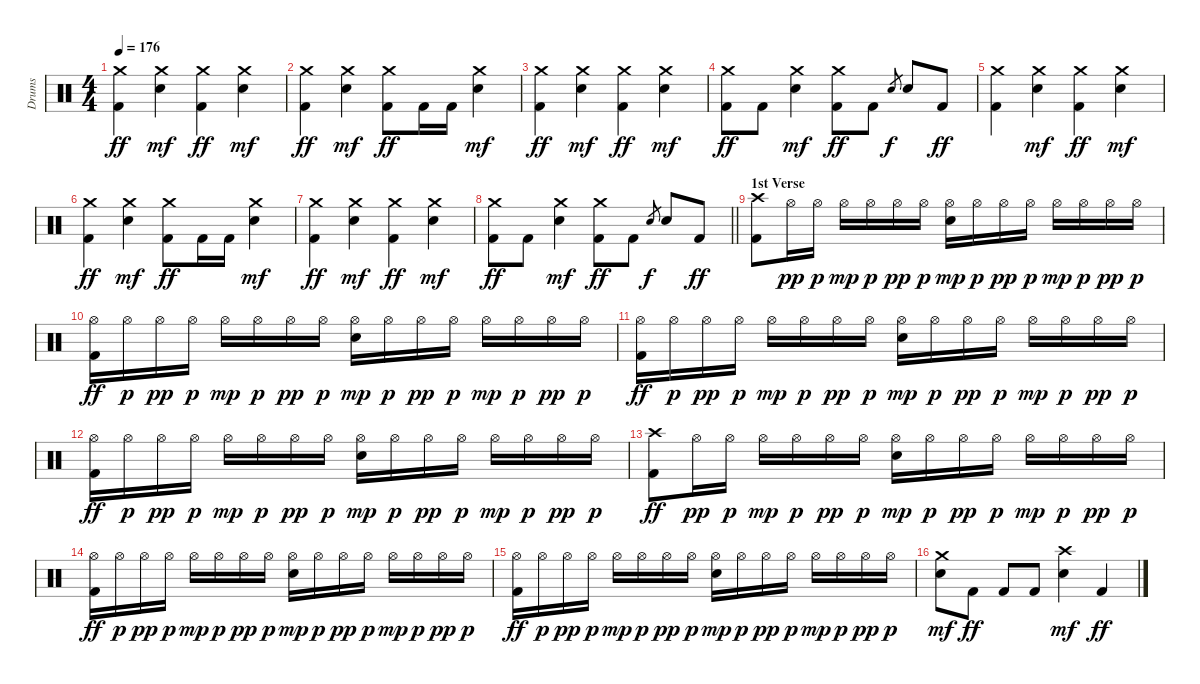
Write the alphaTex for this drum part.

\track ("Drums" "Drums") {instrument percussion}
\staff {score}
\articulation defaults
\ts (4 4)
\section ("" "")
\tempo 176
\clef neutral
\ks c
("Crash medium (hit)" "Kick (hit) 2").4{dy ff} ("Crash medium (hit)" "Electric Snare (hit)").4{dy mf} ("Crash medium (hit)" "Kick (hit) 2").4{dy ff} ("Crash medium (hit)" "Electric Snare (hit)").4{dy mf} |
("Crash medium (hit)" "Kick (hit) 2").4{dy ff} ("Crash medium (hit)" "Electric Snare (hit)").4{dy mf} ("Crash medium (hit)" "Kick (hit) 2").8{dy ff} "Kick (hit) 2".16 "Kick (hit) 2".16 ("Crash medium (hit)" "Electric Snare (hit)").4{dy mf} |
("Crash medium (hit)" "Kick (hit) 2").4{dy ff} ("Crash medium (hit)" "Electric Snare (hit)").4{dy mf} ("Crash medium (hit)" "Kick (hit) 2").4{dy ff} ("Crash medium (hit)" "Electric Snare (hit)").4{dy mf} |
("Crash medium (hit)" "Kick (hit) 2").8{dy ff} "Kick (hit) 2".8 ("Crash medium (hit)" "Electric Snare (hit)").4{dy mf} ("Crash medium (hit)" "Kick (hit) 2").8{dy ff} "Kick (hit) 2".8 "Electric Snare (hit)".8{gr dy f} "Electric Snare (hit)".8 "Kick (hit) 2".8{dy ff} |
("Crash medium (hit)" "Kick (hit) 2").4 ("Crash medium (hit)" "Electric Snare (hit)").4{dy mf} ("Crash medium (hit)" "Kick (hit) 2").4{dy ff} ("Crash medium (hit)" "Electric Snare (hit)").4{dy mf} |
("Crash medium (hit)" "Kick (hit) 2").4{dy ff} ("Crash medium (hit)" "Electric Snare (hit)").4{dy mf} ("Crash medium (hit)" "Kick (hit) 2").8{dy ff} "Kick (hit) 2".16 "Kick (hit) 2".16 ("Crash medium (hit)" "Electric Snare (hit)").4{dy mf} |
("Crash medium (hit)" "Kick (hit) 2").4{dy ff} ("Crash medium (hit)" "Electric Snare (hit)").4{dy mf} ("Crash medium (hit)" "Kick (hit) 2").4{dy ff} ("Crash medium (hit)" "Electric Snare (hit)").4{dy mf} |
\barLineRight lightlight
("Crash medium (hit)" "Kick (hit) 2").8{dy ff} "Kick (hit) 2".8 ("Crash medium (hit)" "Electric Snare (hit)").4{dy mf} ("Crash medium (hit)" "Kick (hit) 2").8{dy ff} "Kick (hit) 2".8 "Electric Snare (hit)".8{gr dy f} "Electric Snare (hit)".8 "Kick (hit) 2".8{dy ff} |
\section ("" "1st Verse")
("Crash high (hit)" "Kick (hit) 2").8 "Hi-Hat (open)".16{dy pp} "Hi-Hat (open)".16{dy p} "Hi-Hat (open)".16{dy mp} "Hi-Hat (open)".16{dy p} "Hi-Hat (open)".16{dy pp} "Hi-Hat (open)".16{dy p} ("Hi-Hat (open)" "Electric Snare (hit)").16{dy mp} "Hi-Hat (open)".16{dy p} "Hi-Hat (open)".16{dy pp} "Hi-Hat (open)".16{dy p} "Hi-Hat (open)".16{dy mp} "Hi-Hat (open)".16{dy p} "Hi-Hat (open)".16{dy pp} "Hi-Hat (open)".16{dy p} |
("Hi-Hat (open)" "Kick (hit) 2").16{dy ff} "Hi-Hat (open)".16{dy p} "Hi-Hat (open)".16{dy pp} "Hi-Hat (open)".16{dy p} "Hi-Hat (open)".16{dy mp} "Hi-Hat (open)".16{dy p} "Hi-Hat (open)".16{dy pp} "Hi-Hat (open)".16{dy p} ("Hi-Hat (open)" "Electric Snare (hit)").16{dy mp} "Hi-Hat (open)".16{dy p} "Hi-Hat (open)".16{dy pp} "Hi-Hat (open)".16{dy p} "Hi-Hat (open)".16{dy mp} "Hi-Hat (open)".16{dy p} "Hi-Hat (open)".16{dy pp} "Hi-Hat (open)".16{dy p} |
("Hi-Hat (open)" "Kick (hit) 2").16{dy ff} "Hi-Hat (open)".16{dy p} "Hi-Hat (open)".16{dy pp} "Hi-Hat (open)".16{dy p} "Hi-Hat (open)".16{dy mp} "Hi-Hat (open)".16{dy p} "Hi-Hat (open)".16{dy pp} "Hi-Hat (open)".16{dy p} ("Hi-Hat (open)" "Electric Snare (hit)").16{dy mp} "Hi-Hat (open)".16{dy p} "Hi-Hat (open)".16{dy pp} "Hi-Hat (open)".16{dy p} "Hi-Hat (open)".16{dy mp} "Hi-Hat (open)".16{dy p} "Hi-Hat (open)".16{dy pp} "Hi-Hat (open)".16{dy p} |
("Hi-Hat (open)" "Kick (hit) 2").16{dy ff} "Hi-Hat (open)".16{dy p} "Hi-Hat (open)".16{dy pp} "Hi-Hat (open)".16{dy p} "Hi-Hat (open)".16{dy mp} "Hi-Hat (open)".16{dy p} "Hi-Hat (open)".16{dy pp} "Hi-Hat (open)".16{dy p} ("Hi-Hat (open)" "Electric Snare (hit)").16{dy mp} "Hi-Hat (open)".16{dy p} "Hi-Hat (open)".16{dy pp} "Hi-Hat (open)".16{dy p} "Hi-Hat (open)".16{dy mp} "Hi-Hat (open)".16{dy p} "Hi-Hat (open)".16{dy pp} "Hi-Hat (open)".16{dy p} |
("Crash high (hit)" "Kick (hit) 2").8{dy ff} "Hi-Hat (open)".16{dy pp} "Hi-Hat (open)".16{dy p} "Hi-Hat (open)".16{dy mp} "Hi-Hat (open)".16{dy p} "Hi-Hat (open)".16{dy pp} "Hi-Hat (open)".16{dy p} ("Hi-Hat (open)" "Electric Snare (hit)").16{dy mp} "Hi-Hat (open)".16{dy p} "Hi-Hat (open)".16{dy pp} "Hi-Hat (open)".16{dy p} "Hi-Hat (open)".16{dy mp} "Hi-Hat (open)".16{dy p} "Hi-Hat (open)".16{dy pp} "Hi-Hat (open)".16{dy p} |
("Hi-Hat (open)" "Kick (hit) 2").16{dy ff} "Hi-Hat (open)".16{dy p} "Hi-Hat (open)".16{dy pp} "Hi-Hat (open)".16{dy p} "Hi-Hat (open)".16{dy mp} "Hi-Hat (open)".16{dy p} "Hi-Hat (open)".16{dy pp} "Hi-Hat (open)".16{dy p} ("Hi-Hat (open)" "Electric Snare (hit)").16{dy mp} "Hi-Hat (open)".16{dy p} "Hi-Hat (open)".16{dy pp} "Hi-Hat (open)".16{dy p} "Hi-Hat (open)".16{dy mp} "Hi-Hat (open)".16{dy p} "Hi-Hat (open)".16{dy pp} "Hi-Hat (open)".16{dy p} |
("Hi-Hat (open)" "Kick (hit) 2").16{dy ff} "Hi-Hat (open)".16{dy p} "Hi-Hat (open)".16{dy pp} "Hi-Hat (open)".16{dy p} "Hi-Hat (open)".16{dy mp} "Hi-Hat (open)".16{dy p} "Hi-Hat (open)".16{dy pp} "Hi-Hat (open)".16{dy p} ("Hi-Hat (open)" "Electric Snare (hit)").16{dy mp} "Hi-Hat (open)".16{dy p} "Hi-Hat (open)".16{dy pp} "Hi-Hat (open)".16{dy p} "Hi-Hat (open)".16{dy mp} "Hi-Hat (open)".16{dy p} "Hi-Hat (open)".16{dy pp} "Hi-Hat (open)".16{dy p} |
("Crash medium (hit)" "Electric Snare (hit)").8{dy mf} "Kick (hit) 2".8{dy ff} "Kick (hit) 2".8 "Kick (hit) 2".8 ("Crash high (hit)" "Electric Snare (hit)").4{dy mf} "Kick (hit) 2".4{dy ff}
